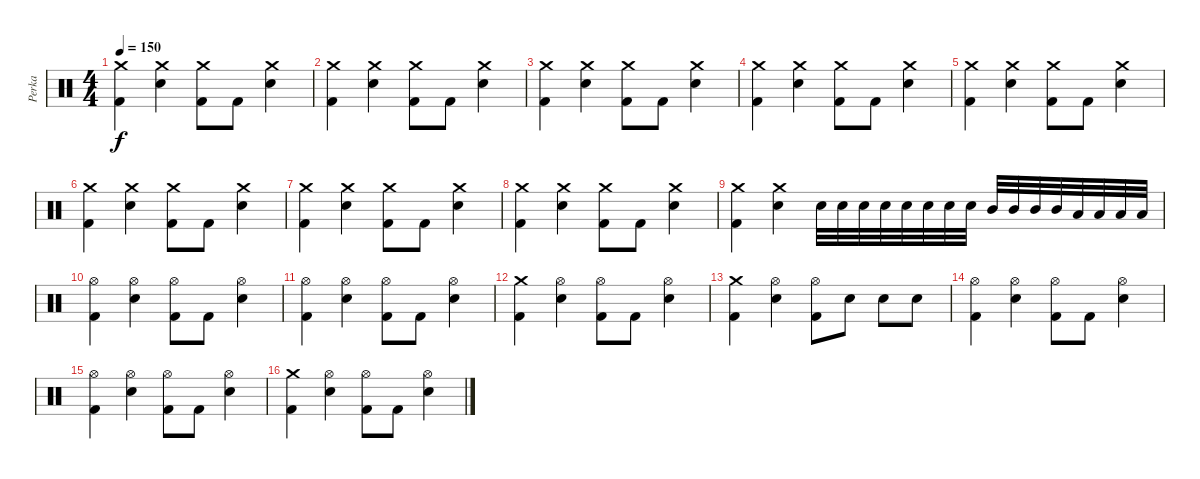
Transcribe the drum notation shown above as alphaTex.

\track ("Perka" "Perka") {instrument percussion}
\staff {score}
\articulation defaults
\ts (4 4)
\tempo 150
\clef neutral
\ks c
("Crash medium (hit)" "Kick (hit) 2").4{dy f} ("Crash medium (hit)" "Snare (hit) 2").4 ("Crash medium (hit)" "Kick (hit) 2").8 "Kick (hit) 2".8 ("Crash medium (hit)" "Snare (hit) 2").4 |
("Crash medium (hit)" "Kick (hit) 2").4 ("Crash medium (hit)" "Snare (hit) 2").4 ("Crash medium (hit)" "Kick (hit) 2").8 "Kick (hit) 2".8 ("Crash medium (hit)" "Snare (hit) 2").4 |
("Crash medium (hit)" "Kick (hit) 2").4 ("Crash medium (hit)" "Snare (hit) 2").4 ("Crash medium (hit)" "Kick (hit) 2").8 "Kick (hit) 2".8 ("Crash medium (hit)" "Snare (hit) 2").4 |
("Crash medium (hit)" "Kick (hit) 2").4 ("Crash medium (hit)" "Snare (hit) 2").4 ("Crash medium (hit)" "Kick (hit) 2").8 "Kick (hit) 2".8 ("Crash medium (hit)" "Snare (hit) 2").4 |
("Crash medium (hit)" "Kick (hit) 2").4 ("Crash medium (hit)" "Snare (hit) 2").4 ("Crash medium (hit)" "Kick (hit) 2").8 "Kick (hit) 2".8 ("Crash medium (hit)" "Snare (hit) 2").4 |
("Crash medium (hit)" "Kick (hit) 2").4 ("Crash medium (hit)" "Snare (hit) 2").4 ("Crash medium (hit)" "Kick (hit) 2").8 "Kick (hit) 2".8 ("Crash medium (hit)" "Snare (hit) 2").4 |
("Crash medium (hit)" "Kick (hit) 2").4 ("Crash medium (hit)" "Snare (hit) 2").4 ("Crash medium (hit)" "Kick (hit) 2").8 "Kick (hit) 2".8 ("Crash medium (hit)" "Snare (hit) 2").4 |
("Crash medium (hit)" "Kick (hit) 2").4 ("Crash medium (hit)" "Snare (hit) 2").4 ("Crash medium (hit)" "Kick (hit) 2").8 "Kick (hit) 2".8 ("Crash medium (hit)" "Snare (hit) 2").4 |
("Crash medium (hit)" "Kick (hit) 2").4 ("Crash medium (hit)" "Snare (hit) 2").4 "Snare (hit) 2".32 "Snare (hit) 2".32 "Snare (hit) 2".32 "Snare (hit) 2".32 "Snare (hit) 2".32 "Snare (hit) 2".32 "Snare (hit) 2".32 "Snare (hit) 2".32 "Mid Tom (hit)".32 "Mid Tom (hit)".32 "Mid Tom (hit)".32 "Mid Tom (hit)".32 "Low Tom (hit)".32 "Low Tom (hit)".32 "Low Tom (hit)".32 "Low Tom (hit)".32 |
("Hi-Hat (open)" "Kick (hit) 2").4 ("Hi-Hat (open)" "Snare (hit) 2").4 ("Hi-Hat (open)" "Kick (hit) 2").8 "Kick (hit) 2".8 ("Hi-Hat (open)" "Snare (hit) 2").4 |
("Hi-Hat (open)" "Kick (hit) 2").4 ("Hi-Hat (open)" "Snare (hit) 2").4 ("Hi-Hat (open)" "Kick (hit) 2").8 "Kick (hit) 2".8 ("Hi-Hat (open)" "Snare (hit) 2").4 |
("Crash medium (hit)" "Kick (hit) 2").4 ("Hi-Hat (open)" "Snare (hit) 2").4 ("Hi-Hat (open)" "Kick (hit) 2").8 "Kick (hit) 2".8 ("Hi-Hat (open)" "Snare (hit) 2").4 |
("Crash medium (hit)" "Kick (hit) 2").4 ("Hi-Hat (open)" "Snare (hit) 2").4 ("Hi-Hat (open)" "Kick (hit) 2").8 "Snare (hit) 2".8 "Snare (hit) 2".8 "Snare (hit) 2".8 |
("Hi-Hat (open)" "Kick (hit) 2").4 ("Hi-Hat (open)" "Snare (hit) 2").4 ("Hi-Hat (open)" "Kick (hit) 2").8 "Kick (hit) 2".8 ("Hi-Hat (open)" "Snare (hit) 2").4 |
("Hi-Hat (open)" "Kick (hit) 2").4 ("Hi-Hat (open)" "Snare (hit) 2").4 ("Hi-Hat (open)" "Kick (hit) 2").8 "Kick (hit) 2".8 ("Hi-Hat (open)" "Snare (hit) 2").4 |
("Crash medium (hit)" "Kick (hit) 2").4 ("Hi-Hat (open)" "Snare (hit) 2").4 ("Hi-Hat (open)" "Kick (hit) 2").8 "Kick (hit) 2".8 ("Hi-Hat (open)" "Snare (hit) 2").4
